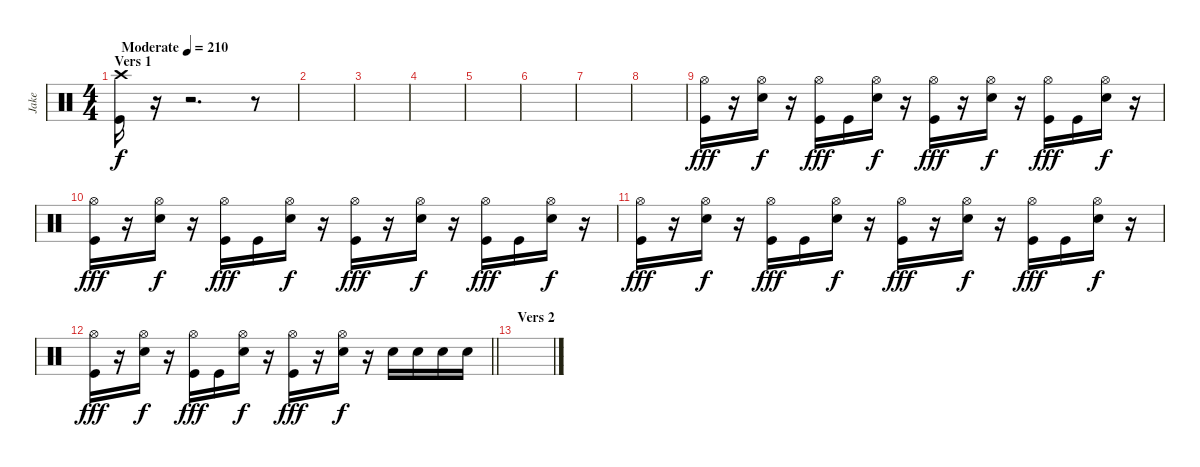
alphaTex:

\track ("Jake" "Jake") {instrument percussion}
\staff {score}
\articulation defaults
\ts (4 4)
\section ("" "Vers 1")
\tempo (210 "Moderate")
\clef neutral
\ks c
("Crash high (hit)" "Kick (hit)").16{dy f volume 11} r.16{volume 0} r.2{d} r.8 |
|
|
|
|
|
|
|
("Hi-Hat (open)" "Kick (hit)").16{dy fff volume 12} r.16 ("Hi-Hat (open)" "Electric Snare (hit)").16{dy f} r.16 ("Hi-Hat (open)" "Kick (hit)").16{dy fff} "Kick (hit)".16 ("Hi-Hat (open)" "Electric Snare (hit)").16{dy f} r.16 ("Hi-Hat (open)" "Kick (hit)").16{dy fff} r.16 ("Hi-Hat (open)" "Electric Snare (hit)").16{dy f} r.16 ("Hi-Hat (open)" "Kick (hit)").16{dy fff} "Kick (hit)".16 ("Hi-Hat (open)" "Electric Snare (hit)").16{dy f} r.16 |
("Hi-Hat (open)" "Kick (hit)").16{dy fff} r.16 ("Hi-Hat (open)" "Electric Snare (hit)").16{dy f} r.16 ("Hi-Hat (open)" "Kick (hit)").16{dy fff} "Kick (hit)".16 ("Hi-Hat (open)" "Electric Snare (hit)").16{dy f} r.16 ("Hi-Hat (open)" "Kick (hit)").16{dy fff} r.16 ("Hi-Hat (open)" "Electric Snare (hit)").16{dy f} r.16 ("Hi-Hat (open)" "Kick (hit)").16{dy fff} "Kick (hit)".16 ("Hi-Hat (open)" "Electric Snare (hit)").16{dy f} r.16 |
("Hi-Hat (open)" "Kick (hit)").16{dy fff} r.16 ("Hi-Hat (open)" "Electric Snare (hit)").16{dy f} r.16 ("Hi-Hat (open)" "Kick (hit)").16{dy fff} "Kick (hit)".16 ("Hi-Hat (open)" "Electric Snare (hit)").16{dy f} r.16 ("Hi-Hat (open)" "Kick (hit)").16{dy fff} r.16 ("Hi-Hat (open)" "Electric Snare (hit)").16{dy f} r.16 ("Hi-Hat (open)" "Kick (hit)").16{dy fff} "Kick (hit)".16 ("Hi-Hat (open)" "Electric Snare (hit)").16{dy f} r.16 |
\barLineRight lightlight
("Hi-Hat (open)" "Kick (hit)").16{dy fff} r.16 ("Hi-Hat (open)" "Electric Snare (hit)").16{dy f} r.16 ("Hi-Hat (open)" "Kick (hit)").16{dy fff} "Kick (hit)".16 ("Hi-Hat (open)" "Electric Snare (hit)").16{dy f} r.16 ("Hi-Hat (open)" "Kick (hit)").16{dy fff} r.16 ("Hi-Hat (open)" "Electric Snare (hit)").16{dy f} r.16 "Electric Snare (hit)".16 "Electric Snare (hit)".16 "Electric Snare (hit)".16 "Electric Snare (hit)".16 |
\section ("" "Vers 2")
